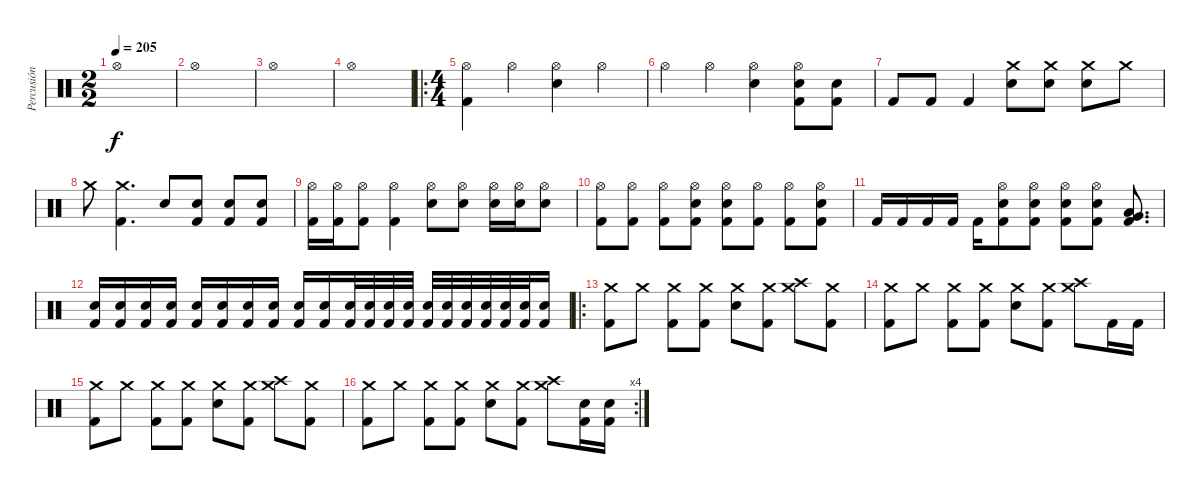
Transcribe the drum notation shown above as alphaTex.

\track ("Percusión" "Percusión") {instrument percussion}
\staff {score}
\articulation defaults
\ts (2 2)
\tempo 205
\clef neutral
\ks c "Hi-Hat (open)".1{dy f}
|
"Hi-Hat (open)".1 |
"Hi-Hat (open)".1 |
"Hi-Hat (open)".1 |
\ro
\ts (4 4)
("Kick (hit) 2" "Hi-Hat (open)").4 "Hi-Hat (open)".4 ("Electric Snare (hit)" "Hi-Hat (open)").4 "Hi-Hat (open)".4 |
"Hi-Hat (open)".4 "Hi-Hat (open)".4 ("Electric Snare (hit)" "Hi-Hat (open)").4 ("Kick (hit) 2" "Electric Snare (hit)" "Hi-Hat (open)").8 ("Kick (hit) 2" "Electric Snare (hit)").8 |
"Kick (hit) 2".8 "Kick (hit) 2".8 "Kick (hit) 2".4 ("Electric Snare (hit)" "Crash medium (hit)").8 ("Electric Snare (hit)" "Crash medium (hit)").8 ("Electric Snare (hit)" "Crash medium (hit)").8 "Crash medium (hit)".8 |
"Crash medium (hit)".8 ("Kick (hit) 2" "Crash medium (hit)").4{d} "Electric Snare (hit)".8 ("Kick (hit) 2" "Electric Snare (hit)").8 ("Kick (hit) 2" "Electric Snare (hit)").8 ("Kick (hit) 2" "Electric Snare (hit)").8 |
("Kick (hit) 2" "Hi-Hat (open)").16 ("Kick (hit) 2" "Hi-Hat (open)").16 ("Kick (hit) 2" "Hi-Hat (open)").8 ("Kick (hit) 2" "Hi-Hat (open)").4 ("Electric Snare (hit)" "Hi-Hat (open)").8 ("Electric Snare (hit)" "Hi-Hat (open)").8 ("Electric Snare (hit)" "Hi-Hat (open)").16 ("Electric Snare (hit)" "Hi-Hat (open)").16 ("Electric Snare (hit)" "Hi-Hat (open)").8 |
("Kick (hit) 2" "Hi-Hat (open)").8 ("Kick (hit) 2" "Hi-Hat (open)").8 ("Kick (hit) 2" "Hi-Hat (open)").8 ("Kick (hit) 2" "Electric Snare (hit)" "Hi-Hat (open)").8 ("Kick (hit) 2" "Electric Snare (hit)" "Hi-Hat (open)").8 ("Kick (hit) 2" "Hi-Hat (open)").8 ("Kick (hit) 2" "Hi-Hat (open)").8 ("Kick (hit) 2" "Electric Snare (hit)" "Hi-Hat (open)").8 |
"Kick (hit) 2".16 "Kick (hit) 2".16 "Kick (hit) 2".16 "Kick (hit) 2".16 "Kick (hit) 2".16 ("Kick (hit) 2" "Electric Snare (hit)" "Hi-Hat (open)").8 ("Kick (hit) 2" "Electric Snare (hit)" "Hi-Hat (open)").8 ("Kick (hit) 2" "Electric Snare (hit)" "Hi-Hat (open)").8 ("Kick (hit) 2" "Electric Snare (hit)" "Hi-Hat (open)").8 ("Kick (hit) 2" "Very Low Tom (hit)" "Low Tom (hit)").8{d} |
("Kick (hit) 2" "Electric Snare (hit)").16 ("Kick (hit) 2" "Electric Snare (hit)").16 ("Kick (hit) 2" "Electric Snare (hit)").16 ("Kick (hit) 2" "Electric Snare (hit)").16 ("Kick (hit) 2" "Electric Snare (hit)").16 ("Kick (hit) 2" "Electric Snare (hit)").16 ("Kick (hit) 2" "Electric Snare (hit)").16 ("Kick (hit) 2" "Electric Snare (hit)").16 ("Kick (hit) 2" "Electric Snare (hit)").16 ("Kick (hit) 2" "Electric Snare (hit)").16 ("Kick (hit) 2" "Electric Snare (hit)").32 ("Kick (hit) 2" "Electric Snare (hit)").32 ("Kick (hit) 2" "Electric Snare (hit)").32 ("Kick (hit) 2" "Electric Snare (hit)").32 ("Kick (hit) 2" "Electric Snare (hit)").32 ("Kick (hit) 2" "Electric Snare (hit)").32 ("Kick (hit) 2" "Electric Snare (hit)").32 ("Kick (hit) 2" "Electric Snare (hit)").32 ("Kick (hit) 2" "Electric Snare (hit)").32 ("Kick (hit) 2" "Electric Snare (hit)").32 ("Kick (hit) 2" "Electric Snare (hit)").16 |
\ro
("Kick (hit) 2" "Crash medium (hit)").8 "Crash medium (hit)".8 ("Kick (hit) 2" "Crash medium (hit)").8 ("Kick (hit) 2" "Crash medium (hit)").8 ("Crash medium (hit)" "Electric Snare (hit)").8 ("Kick (hit) 2" "Crash medium (hit)").8 ("Crash high (hit)" "Crash medium (hit)").8 ("Kick (hit) 2" "Crash medium (hit)").8 |
("Kick (hit) 2" "Crash medium (hit)").8 "Crash medium (hit)".8 ("Kick (hit) 2" "Crash medium (hit)").8 ("Kick (hit) 2" "Crash medium (hit)").8 ("Crash medium (hit)" "Electric Snare (hit)").8 ("Kick (hit) 2" "Crash medium (hit)").8 ("Crash high (hit)" "Crash medium (hit)").8 "Kick (hit) 2".16 "Kick (hit) 2".16 |
("Kick (hit) 2" "Crash medium (hit)").8 "Crash medium (hit)".8 ("Kick (hit) 2" "Crash medium (hit)").8 ("Kick (hit) 2" "Crash medium (hit)").8 ("Crash medium (hit)" "Electric Snare (hit)").8 ("Kick (hit) 2" "Crash medium (hit)").8 ("Crash high (hit)" "Crash medium (hit)").8 ("Kick (hit) 2" "Crash medium (hit)").8 |
\rc 4
("Kick (hit) 2" "Crash medium (hit)").8 "Crash medium (hit)".8 ("Kick (hit) 2" "Crash medium (hit)").8 ("Kick (hit) 2" "Crash medium (hit)").8 ("Crash medium (hit)" "Electric Snare (hit)").8 ("Kick (hit) 2" "Crash medium (hit)").8 ("Crash high (hit)" "Crash medium (hit)").8 ("Kick (hit) 2" "Electric Snare (hit)").16 ("Kick (hit) 2" "Electric Snare (hit)").16
